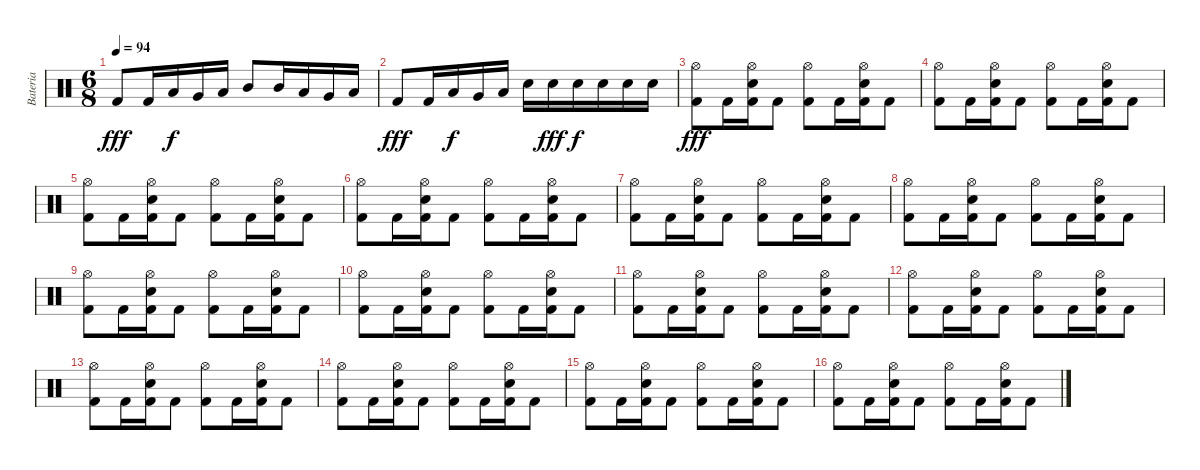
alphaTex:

\track ("Bateria" "Bateria") {instrument percussion}
\staff {score}
\articulation defaults
\ts (6 8)
\tempo 94
\clef neutral
\ks c "Kick (hit) 2".8{dy fff} "Kick (hit) 2".16 "Low Floor Tom (hit)".16{dy f} "Very Low Tom (hit)".16 "Low Tom (hit)".16 "Mid Tom (hit)".8 "Mid Tom (hit)".16 "Low Tom (hit)".16 "Very Low Tom (hit)".16 "Low Floor Tom (hit)".16
|
"Kick (hit) 2".8{dy fff} "Kick (hit) 2".16 "Low Floor Tom (hit)".16{dy f} "Very Low Tom (hit)".16 "Low Tom (hit)".16 "Electric Snare (hit)".16 "Electric Snare (hit)".16{dy fff} "Electric Snare (hit)".16{dy f} "Electric Snare (hit)".16 "Electric Snare (hit)".16 "Electric Snare (hit)".16 |
("Hi-Hat (open)" "Kick (hit) 2").8{dy fff} "Kick (hit) 2".16 ("Hi-Hat (open)" "Electric Snare (hit)" "Kick (hit) 2").16 "Kick (hit) 2".8 ("Hi-Hat (open)" "Kick (hit) 2").8 "Kick (hit) 2".16 ("Hi-Hat (open)" "Electric Snare (hit)" "Kick (hit) 2").16 "Kick (hit) 2".8 |
("Hi-Hat (open)" "Kick (hit) 2").8 "Kick (hit) 2".16 ("Hi-Hat (open)" "Electric Snare (hit)" "Kick (hit) 2").16 "Kick (hit) 2".8 ("Hi-Hat (open)" "Kick (hit) 2").8 "Kick (hit) 2".16 ("Hi-Hat (open)" "Electric Snare (hit)" "Kick (hit) 2").16 "Kick (hit) 2".8 |
("Hi-Hat (open)" "Kick (hit) 2").8 "Kick (hit) 2".16 ("Hi-Hat (open)" "Electric Snare (hit)" "Kick (hit) 2").16 "Kick (hit) 2".8 ("Hi-Hat (open)" "Kick (hit) 2").8 "Kick (hit) 2".16 ("Hi-Hat (open)" "Electric Snare (hit)" "Kick (hit) 2").16 "Kick (hit) 2".8 |
("Hi-Hat (open)" "Kick (hit) 2").8 "Kick (hit) 2".16 ("Hi-Hat (open)" "Electric Snare (hit)" "Kick (hit) 2").16 "Kick (hit) 2".8 ("Hi-Hat (open)" "Kick (hit) 2").8 "Kick (hit) 2".16 ("Hi-Hat (open)" "Electric Snare (hit)" "Kick (hit) 2").16 "Kick (hit) 2".8 |
("Hi-Hat (open)" "Kick (hit) 2").8 "Kick (hit) 2".16 ("Hi-Hat (open)" "Electric Snare (hit)" "Kick (hit) 2").16 "Kick (hit) 2".8 ("Hi-Hat (open)" "Kick (hit) 2").8 "Kick (hit) 2".16 ("Hi-Hat (open)" "Electric Snare (hit)" "Kick (hit) 2").16 "Kick (hit) 2".8 |
("Hi-Hat (open)" "Kick (hit) 2").8 "Kick (hit) 2".16 ("Hi-Hat (open)" "Electric Snare (hit)" "Kick (hit) 2").16 "Kick (hit) 2".8 ("Hi-Hat (open)" "Kick (hit) 2").8 "Kick (hit) 2".16 ("Hi-Hat (open)" "Electric Snare (hit)" "Kick (hit) 2").16 "Kick (hit) 2".8 |
("Hi-Hat (open)" "Kick (hit) 2").8 "Kick (hit) 2".16 ("Hi-Hat (open)" "Electric Snare (hit)" "Kick (hit) 2").16 "Kick (hit) 2".8 ("Hi-Hat (open)" "Kick (hit) 2").8 "Kick (hit) 2".16 ("Hi-Hat (open)" "Electric Snare (hit)" "Kick (hit) 2").16 "Kick (hit) 2".8 |
("Hi-Hat (open)" "Kick (hit) 2").8 "Kick (hit) 2".16 ("Hi-Hat (open)" "Electric Snare (hit)" "Kick (hit) 2").16 "Kick (hit) 2".8 ("Hi-Hat (open)" "Kick (hit) 2").8 "Kick (hit) 2".16 ("Hi-Hat (open)" "Electric Snare (hit)" "Kick (hit) 2").16 "Kick (hit) 2".8 |
("Hi-Hat (open)" "Kick (hit) 2").8 "Kick (hit) 2".16 ("Hi-Hat (open)" "Electric Snare (hit)" "Kick (hit) 2").16 "Kick (hit) 2".8 ("Hi-Hat (open)" "Kick (hit) 2").8 "Kick (hit) 2".16 ("Hi-Hat (open)" "Electric Snare (hit)" "Kick (hit) 2").16 "Kick (hit) 2".8 |
("Hi-Hat (open)" "Kick (hit) 2").8 "Kick (hit) 2".16 ("Hi-Hat (open)" "Electric Snare (hit)" "Kick (hit) 2").16 "Kick (hit) 2".8 ("Hi-Hat (open)" "Kick (hit) 2").8 "Kick (hit) 2".16 ("Hi-Hat (open)" "Electric Snare (hit)" "Kick (hit) 2").16 "Kick (hit) 2".8 |
("Hi-Hat (open)" "Kick (hit) 2").8 "Kick (hit) 2".16 ("Hi-Hat (open)" "Electric Snare (hit)" "Kick (hit) 2").16 "Kick (hit) 2".8 ("Hi-Hat (open)" "Kick (hit) 2").8 "Kick (hit) 2".16 ("Hi-Hat (open)" "Electric Snare (hit)" "Kick (hit) 2").16 "Kick (hit) 2".8 |
("Hi-Hat (open)" "Kick (hit) 2").8 "Kick (hit) 2".16 ("Hi-Hat (open)" "Electric Snare (hit)" "Kick (hit) 2").16 "Kick (hit) 2".8 ("Hi-Hat (open)" "Kick (hit) 2").8 "Kick (hit) 2".16 ("Hi-Hat (open)" "Electric Snare (hit)" "Kick (hit) 2").16 "Kick (hit) 2".8 |
("Hi-Hat (open)" "Kick (hit) 2").8 "Kick (hit) 2".16 ("Hi-Hat (open)" "Electric Snare (hit)" "Kick (hit) 2").16 "Kick (hit) 2".8 ("Hi-Hat (open)" "Kick (hit) 2").8 "Kick (hit) 2".16 ("Hi-Hat (open)" "Electric Snare (hit)" "Kick (hit) 2").16 "Kick (hit) 2".8 |
("Hi-Hat (open)" "Kick (hit) 2").8 "Kick (hit) 2".16 ("Hi-Hat (open)" "Electric Snare (hit)" "Kick (hit) 2").16 "Kick (hit) 2".8 ("Hi-Hat (open)" "Kick (hit) 2").8 "Kick (hit) 2".16 ("Hi-Hat (open)" "Electric Snare (hit)" "Kick (hit) 2").16 "Kick (hit) 2".8
